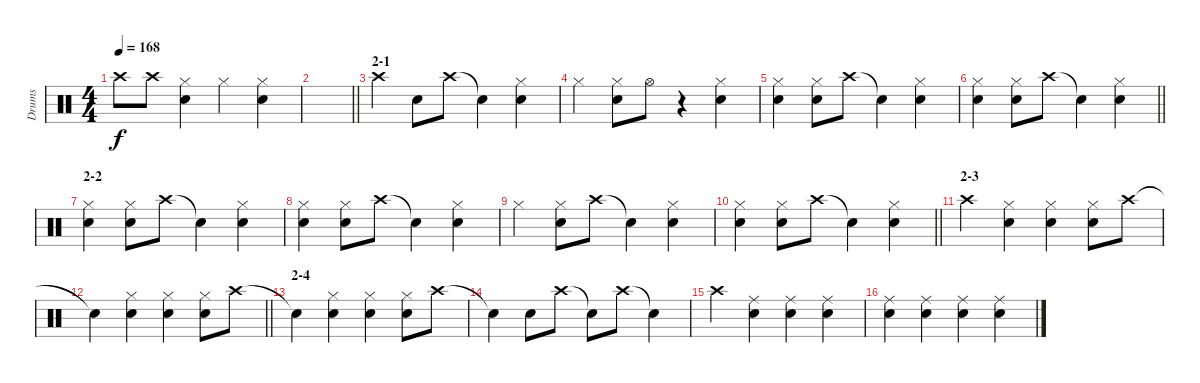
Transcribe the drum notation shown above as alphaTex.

\track ("Drums" "Drums") {instrument percussion}
\staff {score}
\articulation defaults
\ts (4 4)
\tempo 168
\clef neutral
\ks c "Crash high (hit)".8{dy f} "Crash high (hit)".8
("Hi-Hat (closed)" "Snare (hit) 2").4 "Hi-Hat (closed)".4 ("Hi-Hat (closed)" "Snare (hit) 2").4 |
\barLineRight lightlight
|
\section ("" "2-1")
"Crash high (hit)".4 "Snare (hit) 2".8 "Crash high (hit)".8 "Snare (hit)"{t}.4 ("Hi-Hat (closed)" "Snare (hit) 2").4 |
"Hi-Hat (closed)".4 ("Hi-Hat (closed)" "Snare (hit) 2").8 "Hi-Hat (open)".8 r.4 ("Hi-Hat (closed)" "Snare (hit) 2").4 |
("Hi-Hat (closed)" "Snare (hit) 2").4 ("Hi-Hat (closed)" "Snare (hit) 2").8 "Crash high (hit)".8 "Snare (hit)"{t}.4 ("Hi-Hat (closed)" "Snare (hit) 2").4 |
\barLineRight lightlight
("Hi-Hat (closed)" "Snare (hit) 2").4 ("Hi-Hat (closed)" "Snare (hit) 2").8 "Crash high (hit)".8 "Snare (hit)"{t}.4 ("Hi-Hat (closed)" "Snare (hit) 2").4 |
\section ("" "2-2")
("Hi-Hat (closed)" "Snare (hit) 2").4 ("Hi-Hat (closed)" "Snare (hit) 2").8 "Crash high (hit)".8 "Snare (hit)"{t}.4 ("Hi-Hat (closed)" "Snare (hit) 2").4 |
("Hi-Hat (closed)" "Snare (hit) 2").4 ("Hi-Hat (closed)" "Snare (hit) 2").8 "Crash high (hit)".8 "Snare (hit)"{t}.4 ("Hi-Hat (closed)" "Snare (hit) 2").4 |
"Hi-Hat (closed)".4 ("Hi-Hat (closed)" "Snare (hit) 2").8 "Crash high (hit)".8 "Snare (hit)"{t}.4 ("Hi-Hat (closed)" "Snare (hit) 2").4 |
\barLineRight lightlight
("Hi-Hat (closed)" "Snare (hit) 2").4 ("Hi-Hat (closed)" "Snare (hit) 2").8 "Crash high (hit)".8 "Snare (hit)"{t}.4 ("Hi-Hat (closed)" "Snare (hit) 2").4 |
\section ("" "2-3")
"Crash high (hit)".4 ("Hi-Hat (closed)" "Snare (hit) 2").4 ("Hi-Hat (closed)" "Snare (hit) 2").4 ("Hi-Hat (closed)" "Snare (hit) 2").8 "Crash high (hit)".8 |
\barLineRight lightlight "Snare (hit)"{t}.4
("Hi-Hat (closed)" "Snare (hit) 2").4 ("Hi-Hat (closed)" "Snare (hit) 2").4 ("Hi-Hat (closed)" "Snare (hit) 2").8 "Crash high (hit)".8 |
\section ("" "2-4")
"Snare (hit)"{t}.4 ("Hi-Hat (closed)" "Snare (hit) 2").4 ("Hi-Hat (closed)" "Snare (hit) 2").4 ("Hi-Hat (closed)" "Snare (hit) 2").8 "Crash high (hit)".8 |
"Snare (hit)"{t}.4 "Snare (hit) 2".8 "Crash high (hit)".8 "Snare (hit)"{t}.8 "Crash high (hit)".8 "Snare (hit)"{t}.4 |
"Crash high (hit)".4 ("Ride (middle)" "Snare (hit) 2").4 ("Ride (middle)" "Snare (hit) 2").4 ("Ride (middle)" "Snare (hit) 2").4 |
("Ride (middle)" "Snare (hit) 2").4 ("Ride (middle)" "Snare (hit) 2").4 ("Ride (middle)" "Snare (hit) 2").4 ("Ride (middle)" "Snare (hit) 2").4
